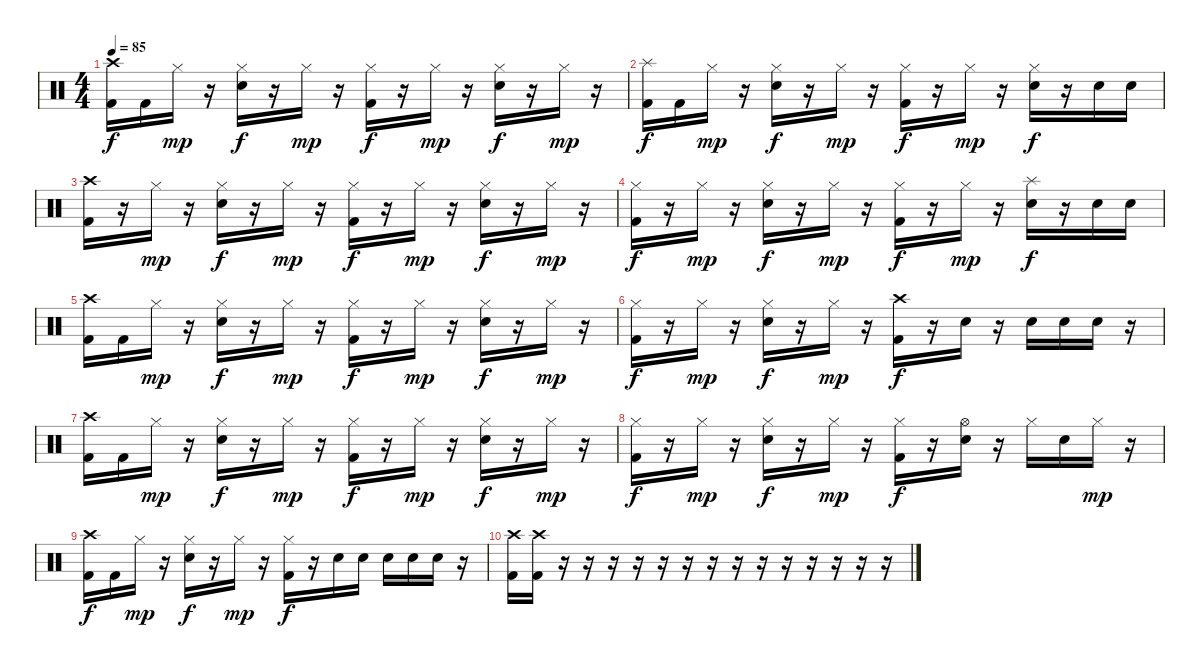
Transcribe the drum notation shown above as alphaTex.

\track ("              Stefff" "          ") {instrument percussion}
\staff {score}
\articulation defaults
\ts (4 4)
\tempo 85
\clef neutral
\ks c
("Kick (hit) 2" "Crash high (hit)").16{dy f} "Kick (hit) 2".16 "Hi-Hat (closed)".16{dy mp} r.16 ("Hi-Hat (closed)" "Snare (hit) 2").16{dy f} r.16 "Hi-Hat (closed)".16{dy mp} r.16 ("Hi-Hat (closed)" "Kick (hit) 2").16{dy f} r.16 "Hi-Hat (closed)".16{dy mp} r.16 ("Hi-Hat (closed)" "Snare (hit) 2").16{dy f} r.16 "Hi-Hat (closed)".16{dy mp} r.16 |
("Kick (hit) 2" "Splash (hit)").16{dy f} "Kick (hit) 2".16 "Hi-Hat (closed)".16{dy mp} r.16 ("Hi-Hat (closed)" "Snare (hit) 2").16{dy f} r.16 "Hi-Hat (closed)".16{dy mp} r.16 ("Hi-Hat (closed)" "Kick (hit) 2").16{dy f} r.16 "Hi-Hat (closed)".16{dy mp} r.16 ("Hi-Hat (closed)" "Snare (hit) 2").16{dy f} r.16 "Snare (hit) 2".16 "Snare (hit) 2".16 |
("Kick (hit) 2" "Crash high (hit)").16 r.16 "Hi-Hat (closed)".16{dy mp} r.16 ("Hi-Hat (closed)" "Snare (hit) 2").16{dy f} r.16 "Hi-Hat (closed)".16{dy mp} r.16 ("Hi-Hat (closed)" "Kick (hit) 2").16{dy f} r.16 "Hi-Hat (closed)".16{dy mp} r.16 ("Hi-Hat (closed)" "Snare (hit) 2").16{dy f} r.16 "Hi-Hat (closed)".16{dy mp} r.16 |
("Kick (hit) 2" "Hi-Hat (closed)").16{dy f} r.16 "Hi-Hat (closed)".16{dy mp} r.16 ("Hi-Hat (closed)" "Snare (hit) 2").16{dy f} r.16 "Hi-Hat (closed)".16{dy mp} r.16 ("Hi-Hat (closed)" "Kick (hit) 2").16{dy f} r.16 "Hi-Hat (closed)".16{dy mp} r.16 ("Splash (hit)" "Snare (hit) 2").16{dy f} r.16 "Snare (hit) 2".16 "Snare (hit) 2".16 |
("Kick (hit) 2" "Crash high (hit)").16 "Kick (hit) 2".16 "Hi-Hat (closed)".16{dy mp} r.16 ("Hi-Hat (closed)" "Snare (hit) 2").16{dy f} r.16 "Hi-Hat (closed)".16{dy mp} r.16 ("Hi-Hat (closed)" "Kick (hit) 2").16{dy f} r.16 "Hi-Hat (closed)".16{dy mp} r.16 ("Hi-Hat (closed)" "Snare (hit) 2").16{dy f} r.16 "Hi-Hat (closed)".16{dy mp} r.16 |
("Kick (hit) 2" "Hi-Hat (closed)").16{dy f} r.16 "Hi-Hat (closed)".16{dy mp} r.16 ("Hi-Hat (closed)" "Snare (hit) 2").16{dy f} r.16 "Hi-Hat (closed)".16{dy mp} r.16 ("Crash high (hit)" "Kick (hit) 2").16{dy f} r.16 "Snare (hit) 2".16 r.16 "Snare (hit) 2".16 "Snare (hit) 2".16 "Snare (hit) 2".16 r.16 |
("Kick (hit) 2" "Crash high (hit)").16 "Kick (hit) 2".16 "Hi-Hat (closed)".16{dy mp} r.16 ("Hi-Hat (closed)" "Snare (hit) 2").16{dy f} r.16 "Hi-Hat (closed)".16{dy mp} r.16 ("Hi-Hat (closed)" "Kick (hit) 2").16{dy f} r.16 "Hi-Hat (closed)".16{dy mp} r.16 ("Hi-Hat (closed)" "Snare (hit) 2").16{dy f} r.16 "Hi-Hat (closed)".16{dy mp} r.16 |
("Kick (hit) 2" "Hi-Hat (closed)").16{dy f} r.16 "Hi-Hat (closed)".16{dy mp} r.16 ("Hi-Hat (closed)" "Snare (hit) 2").16{dy f} r.16 "Hi-Hat (closed)".16{dy mp} r.16 ("Hi-Hat (closed)" "Kick (hit) 2").16{dy f} r.16 ("Hi-Hat (open)" "Snare (hit) 2").16 r.16 "Hi-Hat (closed)".16 "Snare (hit) 2".16 "Hi-Hat (closed)".16{dy mp} r.16 |
("Kick (hit) 2" "Crash high (hit)").16{dy f} "Kick (hit) 2".16 "Hi-Hat (closed)".16{dy mp} r.16 ("Hi-Hat (closed)" "Snare (hit) 2").16{dy f} r.16 "Hi-Hat (closed)".16{dy mp} r.16 ("Hi-Hat (closed)" "Kick (hit) 2").16{dy f} r.16 "Snare (hit) 2".16 "Snare (hit) 2".16 "Snare (hit) 2".16 "Snare (hit) 2".16 "Snare (hit) 2".16 r.16 |
("Kick (hit) 2" "Crash high (hit)").16 ("Kick (hit) 2" "Crash high (hit)").16 r.16 r.16 r.16 r.16 r.16 r.16 r.16 r.16 r.16 r.16 r.16 r.16 r.16 r.16
